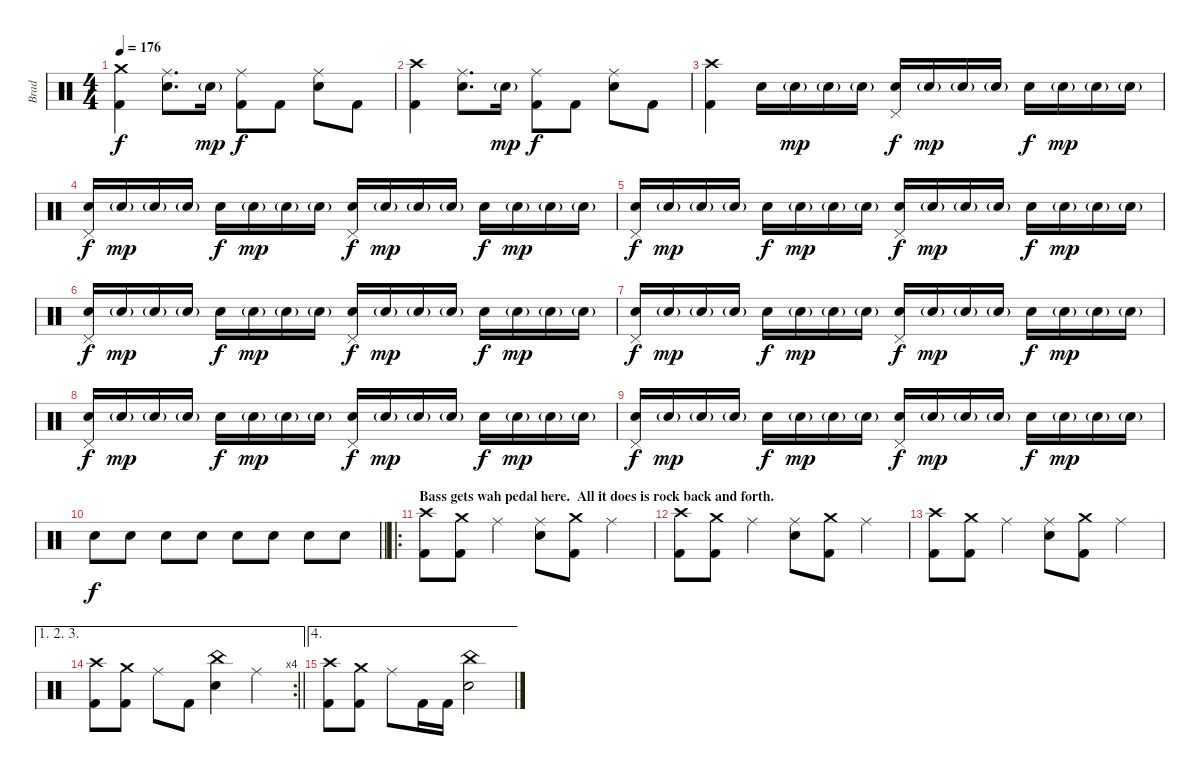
\track ("Brad" "Brad") {instrument percussion}
\staff {score}
\articulation defaults
\ts (4 4)
\tempo 176
\clef neutral
\ks c
("Crash medium (hit)" "Kick (hit) 2").4{dy f} ("Ride (middle)" "Electric Snare (hit)").8{d} "Electric Snare (hit)"{g}.16{dy mp} ("Ride (middle)" "Kick (hit) 2").8{dy f} "Kick (hit) 2".8 ("Ride (middle)" "Electric Snare (hit)").8 "Kick (hit) 2".8 |
("Crash high (hit)" "Kick (hit) 2").4 ("Ride (middle)" "Electric Snare (hit)").8{d} "Electric Snare (hit)"{g}.16{dy mp} ("Ride (middle)" "Kick (hit) 2").8{dy f} "Kick (hit) 2".8 ("Ride (middle)" "Electric Snare (hit)").8 "Kick (hit) 2".8 |
("Crash high (hit)" "Kick (hit) 2").4 "Electric Snare (hit)".16 "Electric Snare (hit)"{g}.16{dy mp} "Electric Snare (hit)"{g}.16 "Electric Snare (hit)"{g}.16 ("Pedal Hi-Hat (hit)" "Electric Snare (hit)").16{dy f} "Electric Snare (hit)"{g}.16{dy mp} "Electric Snare (hit)"{g}.16 "Electric Snare (hit)"{g}.16 "Electric Snare (hit)".16{dy f} "Electric Snare (hit)"{g}.16{dy mp} "Electric Snare (hit)"{g}.16 "Electric Snare (hit)"{g}.16 |
("Pedal Hi-Hat (hit)" "Electric Snare (hit)").16{dy f} "Electric Snare (hit)"{g}.16{dy mp} "Electric Snare (hit)"{g}.16 "Electric Snare (hit)"{g}.16 "Electric Snare (hit)".16{dy f} "Electric Snare (hit)"{g}.16{dy mp} "Electric Snare (hit)"{g}.16 "Electric Snare (hit)"{g}.16 ("Pedal Hi-Hat (hit)" "Electric Snare (hit)").16{dy f} "Electric Snare (hit)"{g}.16{dy mp} "Electric Snare (hit)"{g}.16 "Electric Snare (hit)"{g}.16 "Electric Snare (hit)".16{dy f} "Electric Snare (hit)"{g}.16{dy mp} "Electric Snare (hit)"{g}.16 "Electric Snare (hit)"{g}.16 |
("Pedal Hi-Hat (hit)" "Electric Snare (hit)").16{dy f} "Electric Snare (hit)"{g}.16{dy mp} "Electric Snare (hit)"{g}.16 "Electric Snare (hit)"{g}.16 "Electric Snare (hit)".16{dy f} "Electric Snare (hit)"{g}.16{dy mp} "Electric Snare (hit)"{g}.16 "Electric Snare (hit)"{g}.16 ("Pedal Hi-Hat (hit)" "Electric Snare (hit)").16{dy f} "Electric Snare (hit)"{g}.16{dy mp} "Electric Snare (hit)"{g}.16 "Electric Snare (hit)"{g}.16 "Electric Snare (hit)".16{dy f} "Electric Snare (hit)"{g}.16{dy mp} "Electric Snare (hit)"{g}.16 "Electric Snare (hit)"{g}.16 |
("Pedal Hi-Hat (hit)" "Electric Snare (hit)").16{dy f} "Electric Snare (hit)"{g}.16{dy mp} "Electric Snare (hit)"{g}.16 "Electric Snare (hit)"{g}.16 "Electric Snare (hit)".16{dy f} "Electric Snare (hit)"{g}.16{dy mp} "Electric Snare (hit)"{g}.16 "Electric Snare (hit)"{g}.16 ("Pedal Hi-Hat (hit)" "Electric Snare (hit)").16{dy f} "Electric Snare (hit)"{g}.16{dy mp} "Electric Snare (hit)"{g}.16 "Electric Snare (hit)"{g}.16 "Electric Snare (hit)".16{dy f} "Electric Snare (hit)"{g}.16{dy mp} "Electric Snare (hit)"{g}.16 "Electric Snare (hit)"{g}.16 |
("Pedal Hi-Hat (hit)" "Electric Snare (hit)").16{dy f} "Electric Snare (hit)"{g}.16{dy mp} "Electric Snare (hit)"{g}.16 "Electric Snare (hit)"{g}.16 "Electric Snare (hit)".16{dy f} "Electric Snare (hit)"{g}.16{dy mp} "Electric Snare (hit)"{g}.16 "Electric Snare (hit)"{g}.16 ("Pedal Hi-Hat (hit)" "Electric Snare (hit)").16{dy f} "Electric Snare (hit)"{g}.16{dy mp} "Electric Snare (hit)"{g}.16 "Electric Snare (hit)"{g}.16 "Electric Snare (hit)".16{dy f} "Electric Snare (hit)"{g}.16{dy mp} "Electric Snare (hit)"{g}.16 "Electric Snare (hit)"{g}.16 |
("Pedal Hi-Hat (hit)" "Electric Snare (hit)").16{dy f} "Electric Snare (hit)"{g}.16{dy mp} "Electric Snare (hit)"{g}.16 "Electric Snare (hit)"{g}.16 "Electric Snare (hit)".16{dy f} "Electric Snare (hit)"{g}.16{dy mp} "Electric Snare (hit)"{g}.16 "Electric Snare (hit)"{g}.16 ("Pedal Hi-Hat (hit)" "Electric Snare (hit)").16{dy f} "Electric Snare (hit)"{g}.16{dy mp} "Electric Snare (hit)"{g}.16 "Electric Snare (hit)"{g}.16 "Electric Snare (hit)".16{dy f} "Electric Snare (hit)"{g}.16{dy mp} "Electric Snare (hit)"{g}.16 "Electric Snare (hit)"{g}.16 |
("Pedal Hi-Hat (hit)" "Electric Snare (hit)").16{dy f} "Electric Snare (hit)"{g}.16{dy mp} "Electric Snare (hit)"{g}.16 "Electric Snare (hit)"{g}.16 "Electric Snare (hit)".16{dy f} "Electric Snare (hit)"{g}.16{dy mp} "Electric Snare (hit)"{g}.16 "Electric Snare (hit)"{g}.16 ("Pedal Hi-Hat (hit)" "Electric Snare (hit)").16{dy f} "Electric Snare (hit)"{g}.16{dy mp} "Electric Snare (hit)"{g}.16 "Electric Snare (hit)"{g}.16 "Electric Snare (hit)".16{dy f} "Electric Snare (hit)"{g}.16{dy mp} "Electric Snare (hit)"{g}.16 "Electric Snare (hit)"{g}.16 |
\barLineRight lightlight "Electric Snare (hit)".8{dy f} "Electric Snare (hit)".8 "Electric Snare (hit)".8 "Electric Snare (hit)".8 "Electric Snare (hit)".8 "Electric Snare (hit)".8 "Electric Snare (hit)".8 "Electric Snare (hit)".8
|
\ro
\section ("" "Bass gets wah pedal here.  All it does is rock back and forth.")
("Crash high (hit)" "Kick (hit) 2").8 ("Crash medium (hit)" "Kick (hit) 2").8 "Ride (middle)".4 ("Ride (middle)" "Electric Snare (hit)").8 ("Crash medium (hit)" "Kick (hit) 2").8 "Ride (middle)".4 |
("Crash high (hit)" "Kick (hit) 2").8 ("Crash medium (hit)" "Kick (hit) 2").8 "Ride (middle)".4 ("Ride (middle)" "Electric Snare (hit)").8 ("Crash medium (hit)" "Kick (hit) 2").8 "Ride (middle)".4 |
("Crash high (hit)" "Kick (hit) 2").8 ("Crash medium (hit)" "Kick (hit) 2").8 "Ride (middle)".4 ("Ride (middle)" "Electric Snare (hit)").8 ("Crash medium (hit)" "Kick (hit) 2").8 "Ride (middle)".4 |
\ae (1 2 3)
\rc 4
\barLineRight lightlight
("Crash high (hit)" "Kick (hit) 2").8 ("Crash medium (hit)" "Kick (hit) 2").8 "Ride (middle)".8 "Kick (hit) 2".8 ("China (hit)" "Electric Snare (hit)").4 "Ride (middle)".4 |
\ae 4
("Crash high (hit)" "Kick (hit) 2").8 ("Crash medium (hit)" "Kick (hit) 2").8 "Ride (middle)".8 "Kick (hit) 2".16 "Kick (hit) 2".16 ("China (hit)" "Electric Snare (hit)").2
